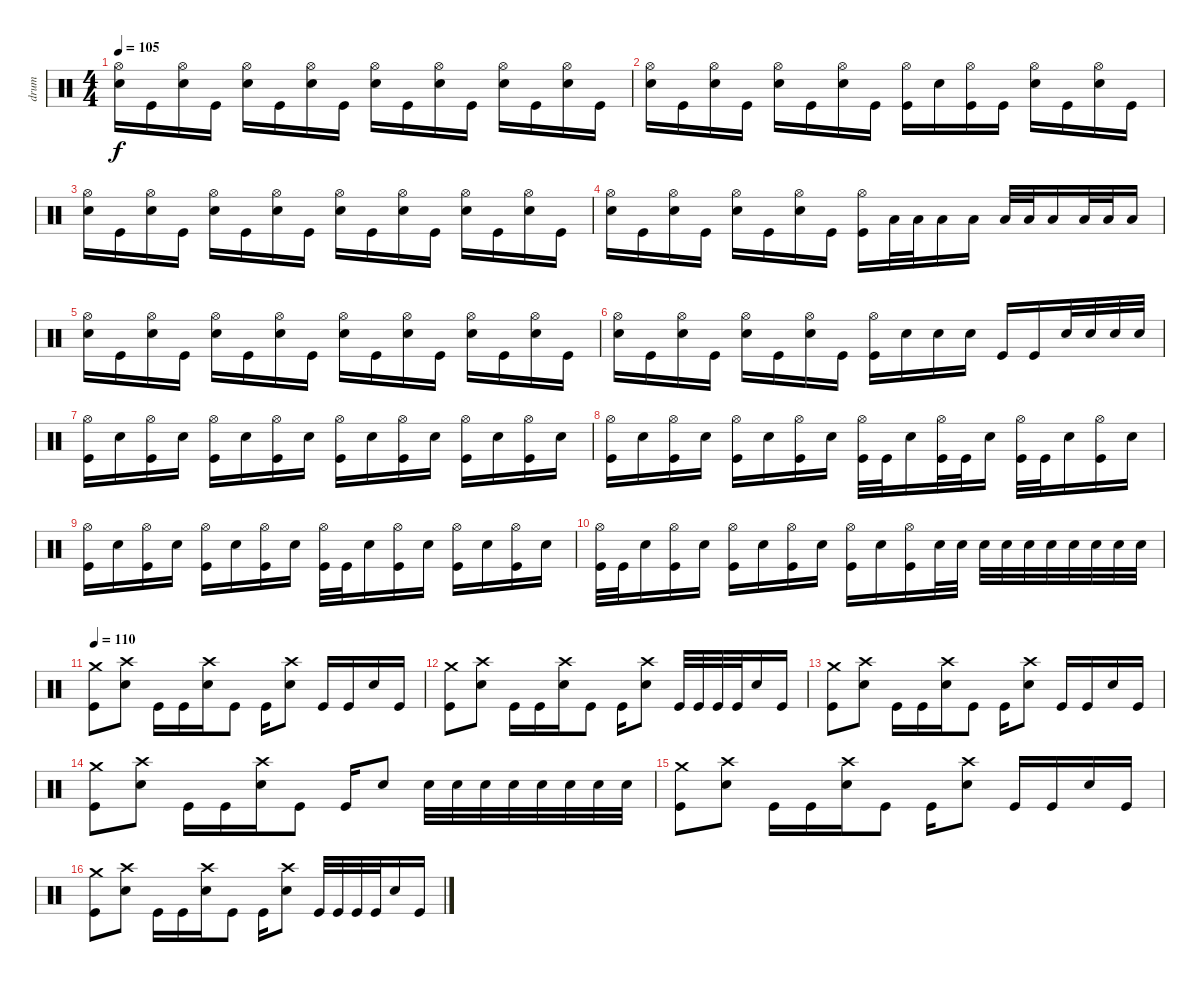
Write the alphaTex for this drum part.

\track ("drum" "drum") {instrument percussion}
\staff {score}
\articulation defaults
\ts (4 4)
\tempo 105
\clef neutral
\ks c
("Hi-Hat (open)" "Electric Snare (hit)").16{dy f} "Kick (hit)".16 ("Hi-Hat (open)" "Electric Snare (hit)").16 "Kick (hit)".16 ("Hi-Hat (open)" "Electric Snare (hit)").16 "Kick (hit)".16 ("Hi-Hat (open)" "Electric Snare (hit)").16 "Kick (hit)".16 ("Hi-Hat (open)" "Electric Snare (hit)").16 "Kick (hit)".16 ("Hi-Hat (open)" "Electric Snare (hit)").16 "Kick (hit)".16 ("Hi-Hat (open)" "Electric Snare (hit)").16 "Kick (hit)".16 ("Hi-Hat (open)" "Electric Snare (hit)").16 "Kick (hit)".16 |
("Hi-Hat (open)" "Electric Snare (hit)").16 "Kick (hit)".16 ("Hi-Hat (open)" "Electric Snare (hit)").16 "Kick (hit)".16 ("Hi-Hat (open)" "Electric Snare (hit)").16 "Kick (hit)".16 ("Hi-Hat (open)" "Electric Snare (hit)").16 "Kick (hit)".16 ("Hi-Hat (open)" "Kick (hit)").16 "Electric Snare (hit)".16 ("Hi-Hat (open)" "Kick (hit)").16 "Kick (hit)".16 ("Hi-Hat (open)" "Electric Snare (hit)").16 "Kick (hit)".16 ("Hi-Hat (open)" "Electric Snare (hit)").16 "Kick (hit)".16 |
("Hi-Hat (open)" "Electric Snare (hit)").16 "Kick (hit)".16 ("Hi-Hat (open)" "Electric Snare (hit)").16 "Kick (hit)".16 ("Hi-Hat (open)" "Electric Snare (hit)").16 "Kick (hit)".16 ("Hi-Hat (open)" "Electric Snare (hit)").16 "Kick (hit)".16 ("Hi-Hat (open)" "Electric Snare (hit)").16 "Kick (hit)".16 ("Hi-Hat (open)" "Electric Snare (hit)").16 "Kick (hit)".16 ("Hi-Hat (open)" "Electric Snare (hit)").16 "Kick (hit)".16 ("Hi-Hat (open)" "Electric Snare (hit)").16 "Kick (hit)".16 |
("Hi-Hat (open)" "Electric Snare (hit)").16 "Kick (hit)".16 ("Hi-Hat (open)" "Electric Snare (hit)").16 "Kick (hit)".16 ("Hi-Hat (open)" "Electric Snare (hit)").16 "Kick (hit)".16 ("Hi-Hat (open)" "Electric Snare (hit)").16 "Kick (hit)".16 ("Hi-Hat (open)" "Kick (hit)").16 "Low Tom (hit)".32 "Low Tom (hit)".32 "Low Tom (hit)".16 "Low Tom (hit)".16 "Low Tom (hit)".32 "Low Tom (hit)".32 "Low Tom (hit)".16 "Low Tom (hit)".32 "Low Tom (hit)".32 "Low Tom (hit)".16 |
("Hi-Hat (open)" "Electric Snare (hit)").16 "Kick (hit)".16 ("Hi-Hat (open)" "Electric Snare (hit)").16 "Kick (hit)".16 ("Hi-Hat (open)" "Electric Snare (hit)").16 "Kick (hit)".16 ("Hi-Hat (open)" "Electric Snare (hit)").16 "Kick (hit)".16 ("Hi-Hat (open)" "Electric Snare (hit)").16 "Kick (hit)".16 ("Hi-Hat (open)" "Electric Snare (hit)").16 "Kick (hit)".16 ("Hi-Hat (open)" "Electric Snare (hit)").16 "Kick (hit)".16 ("Hi-Hat (open)" "Electric Snare (hit)").16 "Kick (hit)".16 |
("Hi-Hat (open)" "Electric Snare (hit)").16 "Kick (hit)".16 ("Hi-Hat (open)" "Electric Snare (hit)").16 "Kick (hit)".16 ("Hi-Hat (open)" "Electric Snare (hit)").16 "Kick (hit)".16 ("Hi-Hat (open)" "Electric Snare (hit)").16 "Kick (hit)".16 ("Hi-Hat (open)" "Kick (hit)").16 "Electric Snare (hit)".16 "Electric Snare (hit)".16 "Electric Snare (hit)".16 "Kick (hit)".16 "Kick (hit)".16 "Electric Snare (hit)".32 "Electric Snare (hit)".32 "Electric Snare (hit)".32 "Electric Snare (hit)".32 |
("Hi-Hat (open)" "Kick (hit)").16 "Electric Snare (hit)".16 ("Hi-Hat (open)" "Kick (hit)").16 "Electric Snare (hit)".16 ("Hi-Hat (open)" "Kick (hit)").16 "Electric Snare (hit)".16 ("Hi-Hat (open)" "Kick (hit)").16 "Electric Snare (hit)".16 ("Hi-Hat (open)" "Kick (hit)").16 "Electric Snare (hit)".16 ("Hi-Hat (open)" "Kick (hit)").16 "Electric Snare (hit)".16 ("Hi-Hat (open)" "Kick (hit)").16 "Electric Snare (hit)".16 ("Hi-Hat (open)" "Kick (hit)").16 "Electric Snare (hit)".16 |
("Hi-Hat (open)" "Kick (hit)").16 "Electric Snare (hit)".16 ("Hi-Hat (open)" "Kick (hit)").16 "Electric Snare (hit)".16 ("Hi-Hat (open)" "Kick (hit)").16 "Electric Snare (hit)".16 ("Hi-Hat (open)" "Kick (hit)").16 "Electric Snare (hit)".16 ("Hi-Hat (open)" "Kick (hit)").32 "Kick (hit)".32 "Electric Snare (hit)".16 ("Hi-Hat (open)" "Kick (hit)").32 "Kick (hit)".32 "Electric Snare (hit)".16 ("Hi-Hat (open)" "Kick (hit)").32 "Kick (hit)".32 "Electric Snare (hit)".16 ("Hi-Hat (open)" "Kick (hit)").16 "Electric Snare (hit)".16 |
("Hi-Hat (open)" "Kick (hit)").16 "Electric Snare (hit)".16 ("Hi-Hat (open)" "Kick (hit)").16 "Electric Snare (hit)".16 ("Hi-Hat (open)" "Kick (hit)").16 "Electric Snare (hit)".16 ("Hi-Hat (open)" "Kick (hit)").16 "Electric Snare (hit)".16 ("Hi-Hat (open)" "Kick (hit)").32 "Kick (hit)".32 "Electric Snare (hit)".16 ("Hi-Hat (open)" "Kick (hit)").16 "Electric Snare (hit)".16 ("Hi-Hat (open)" "Kick (hit)").16 "Electric Snare (hit)".16 ("Hi-Hat (open)" "Kick (hit)").16 "Electric Snare (hit)".16 |
("Hi-Hat (open)" "Kick (hit)").32 "Kick (hit)".32 "Electric Snare (hit)".16 ("Hi-Hat (open)" "Kick (hit)").16 "Electric Snare (hit)".16 ("Hi-Hat (open)" "Kick (hit)").16 "Electric Snare (hit)".16 ("Hi-Hat (open)" "Kick (hit)").16 "Electric Snare (hit)".16 ("Hi-Hat (open)" "Kick (hit)").16 "Electric Snare (hit)".16 ("Hi-Hat (open)" "Kick (hit)").16 "Electric Snare (hit)".32 "Electric Snare (hit)".32 "Electric Snare (hit)".32 "Electric Snare (hit)".32 "Electric Snare (hit)".32 "Electric Snare (hit)".32 "Electric Snare (hit)".32 "Electric Snare (hit)".32 "Electric Snare (hit)".32 "Electric Snare (hit)".32 |
\tempo 110
("Crash medium (hit)" "Kick (hit)").8 ("Crash high (hit)" "Electric Snare (hit)").8 "Kick (hit)".16 "Kick (hit)".16 ("Crash high (hit)" "Electric Snare (hit)").16 "Kick (hit)".8 "Kick (hit)".16 ("Crash high (hit)" "Electric Snare (hit)").8 "Kick (hit)".16 "Kick (hit)".16 "Electric Snare (hit)".16 "Kick (hit)".16 |
("Crash medium (hit)" "Kick (hit)").8 ("Crash high (hit)" "Electric Snare (hit)").8 "Kick (hit)".16 "Kick (hit)".16 ("Crash high (hit)" "Electric Snare (hit)").16 "Kick (hit)".8 "Kick (hit)".16 ("Crash high (hit)" "Electric Snare (hit)").8 "Kick (hit)".32 "Kick (hit)".32 "Kick (hit)".32 "Kick (hit)".32 "Electric Snare (hit)".16 "Kick (hit)".16 |
("Crash medium (hit)" "Kick (hit)").8 ("Crash high (hit)" "Electric Snare (hit)").8 "Kick (hit)".16 "Kick (hit)".16 ("Crash high (hit)" "Electric Snare (hit)").16 "Kick (hit)".8 "Kick (hit)".16 ("Crash high (hit)" "Electric Snare (hit)").8 "Kick (hit)".16 "Kick (hit)".16 "Electric Snare (hit)".16 "Kick (hit)".16 |
("Crash medium (hit)" "Kick (hit)").8 ("Crash high (hit)" "Electric Snare (hit)").8 "Kick (hit)".16 "Kick (hit)".16 ("Crash high (hit)" "Electric Snare (hit)").16 "Kick (hit)".8 "Kick (hit)".16 "Electric Snare (hit)".8 "Electric Snare (hit)".32 "Electric Snare (hit)".32 "Electric Snare (hit)".32 "Electric Snare (hit)".32 "Electric Snare (hit)".32 "Electric Snare (hit)".32 "Electric Snare (hit)".32 "Electric Snare (hit)".32 |
("Crash medium (hit)" "Kick (hit)").8 ("Crash high (hit)" "Electric Snare (hit)").8 "Kick (hit)".16 "Kick (hit)".16 ("Crash high (hit)" "Electric Snare (hit)").16 "Kick (hit)".8 "Kick (hit)".16 ("Crash high (hit)" "Electric Snare (hit)").8 "Kick (hit)".16 "Kick (hit)".16 "Electric Snare (hit)".16 "Kick (hit)".16 |
("Crash medium (hit)" "Kick (hit)").8 ("Crash high (hit)" "Electric Snare (hit)").8 "Kick (hit)".16 "Kick (hit)".16 ("Crash high (hit)" "Electric Snare (hit)").16 "Kick (hit)".8 "Kick (hit)".16 ("Crash high (hit)" "Electric Snare (hit)").8 "Kick (hit)".32 "Kick (hit)".32 "Kick (hit)".32 "Kick (hit)".32 "Electric Snare (hit)".16 "Kick (hit)".16
